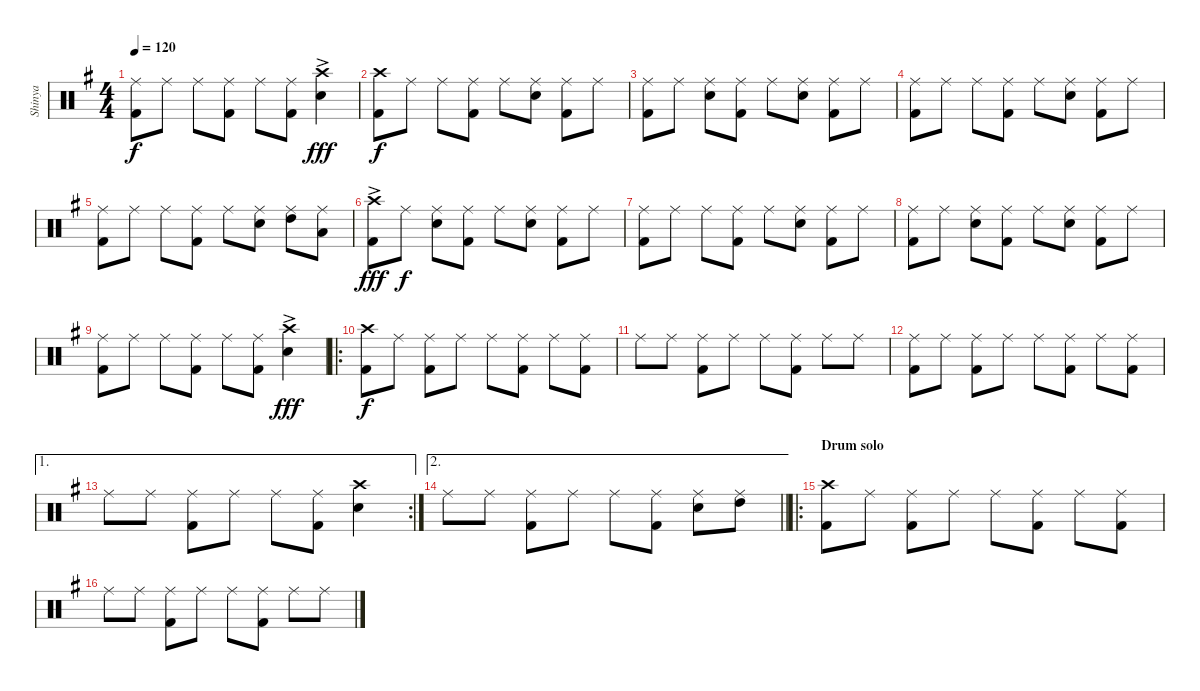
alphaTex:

\track ("Shinya" "Shinya") {instrument percussion}
\staff {score}
\articulation defaults
\ts (4 4)
\tempo 120
\clef neutral
\ks g
("Ride (middle)" "Kick (hit) 2").8{dy f} "Ride (middle)".8 "Ride (middle)".8 ("Ride (middle)" "Kick (hit) 2").8 "Ride (middle)".8 ("Ride (middle)" "Kick (hit) 2").8 ("Crash high (hit)"{ac} "Snare (hit) 2").4{dy fff} |
("Crash high (hit)" "Kick (hit) 2").8{dy f} "Ride (middle)".8 "Ride (middle)".8 ("Ride (middle)" "Kick (hit) 2").8 "Ride (middle)".8 ("Ride (middle)" "Snare (hit) 2").8 ("Ride (middle)" "Kick (hit) 2").8 "Ride (middle)".8 |
("Ride (middle)" "Kick (hit) 2").8 "Ride (middle)".8 ("Ride (middle)" "Snare (hit) 2").8 ("Ride (middle)" "Kick (hit) 2").8 "Ride (middle)".8 ("Ride (middle)" "Snare (hit) 2").8 ("Ride (middle)" "Kick (hit) 2").8 "Ride (middle)".8 |
("Ride (middle)" "Kick (hit) 2").8 "Ride (middle)".8 "Ride (middle)".8 ("Ride (middle)" "Kick (hit) 2").8 "Ride (middle)".8 ("Ride (middle)" "Snare (hit) 2").8 ("Ride (middle)" "Kick (hit) 2").8 "Ride (middle)".8 |
("Ride (middle)" "Kick (hit) 2").8 "Ride (middle)".8 "Ride (middle)".8 ("Ride (middle)" "Kick (hit) 2").8 "Ride (middle)".8 ("Ride (middle)" "Snare (hit) 2").8 ("Ride (middle)" "High Tom (hit)").8 ("Ride (middle)" "Low Tom (hit)").8 |
("Crash high (hit)"{ac} "Kick (hit) 2").8{dy fff} "Ride (middle)".8{dy f} ("Ride (middle)" "Snare (hit) 2").8 ("Ride (middle)" "Kick (hit) 2").8 "Ride (middle)".8 ("Ride (middle)" "Snare (hit) 2").8 ("Ride (middle)" "Kick (hit) 2").8 "Ride (middle)".8 |
("Ride (middle)" "Kick (hit) 2").8 "Ride (middle)".8 "Ride (middle)".8 ("Ride (middle)" "Kick (hit) 2").8 "Ride (middle)".8 ("Ride (middle)" "Snare (hit) 2").8 ("Ride (middle)" "Kick (hit) 2").8 "Ride (middle)".8 |
("Ride (middle)" "Kick (hit) 2").8 "Ride (middle)".8 ("Ride (middle)" "Snare (hit) 2").8 ("Ride (middle)" "Kick (hit) 2").8 "Ride (middle)".8 ("Ride (middle)" "Snare (hit) 2").8 ("Ride (middle)" "Kick (hit) 2").8 "Ride (middle)".8 |
("Ride (middle)" "Kick (hit) 2").8 "Ride (middle)".8 "Ride (middle)".8 ("Ride (middle)" "Kick (hit) 2").8 "Ride (middle)".8 ("Ride (middle)" "Kick (hit) 2").8 ("Crash high (hit)"{ac} "Snare (hit) 2").4{dy fff} |
\ro
("Crash high (hit)" "Kick (hit) 2").8{dy f} "Ride (middle)".8 ("Ride (middle)" "Kick (hit) 2").8 "Ride (middle)".8 "Ride (middle)".8 ("Ride (middle)" "Kick (hit) 2").8 "Ride (middle)".8 ("Ride (middle)" "Kick (hit) 2").8 |
"Ride (middle)".8 "Ride (middle)".8 ("Ride (middle)" "Kick (hit) 2").8 "Ride (middle)".8 "Ride (middle)".8 ("Ride (middle)" "Kick (hit) 2").8 "Ride (middle)".8 "Ride (middle)".8 |
("Ride (middle)" "Kick (hit) 2").8 "Ride (middle)".8 ("Ride (middle)" "Kick (hit) 2").8 "Ride (middle)".8 "Ride (middle)".8 ("Ride (middle)" "Kick (hit) 2").8 "Ride (middle)".8 ("Ride (middle)" "Kick (hit) 2").8 |
\ae 1
\rc 2 "Ride (middle)".8 "Ride (middle)".8
("Ride (middle)" "Kick (hit) 2").8 "Ride (middle)".8 "Ride (middle)".8 ("Ride (middle)" "Kick (hit) 2").8 ("Crash high (hit)" "Snare (hit) 2").4 |
\ae 2
\barLineRight lightlight "Ride (middle)".8 "Ride (middle)".8
("Ride (middle)" "Kick (hit) 2").8 "Ride (middle)".8 "Ride (middle)".8 ("Ride (middle)" "Kick (hit) 2").8 ("Ride (middle)" "Snare (hit) 2").8 ("Ride (middle)" "High Tom (hit)").8 |
\ro
\section ("" "Drum solo")
("Crash high (hit)" "Kick (hit) 2").8 "Ride (middle)".8 ("Ride (middle)" "Kick (hit) 2").8 "Ride (middle)".8 "Ride (middle)".8 ("Ride (middle)" "Kick (hit) 2").8 "Ride (middle)".8 ("Ride (middle)" "Kick (hit) 2").8 |
"Ride (middle)".8 "Ride (middle)".8 ("Ride (middle)" "Kick (hit) 2").8 "Ride (middle)".8 "Ride (middle)".8 ("Ride (middle)" "Kick (hit) 2").8 "Ride (middle)".8 "Ride (middle)".8
